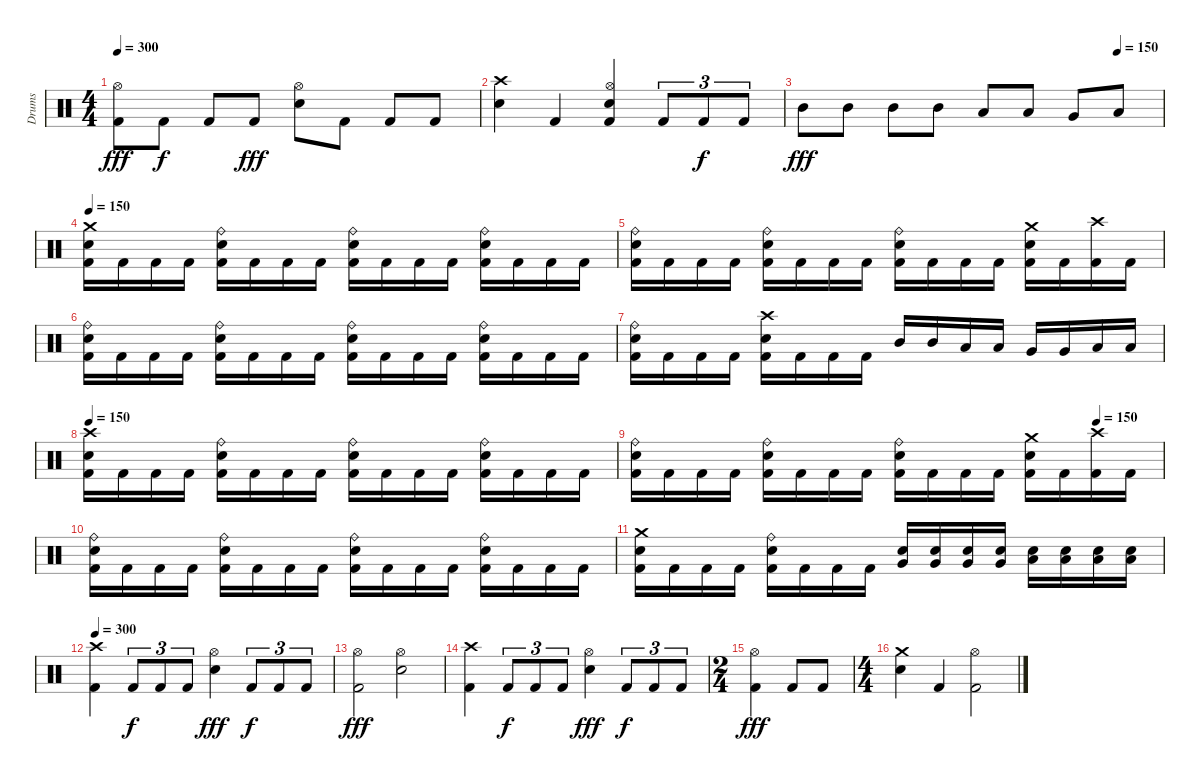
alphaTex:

\track ("Drums" "Drums") {instrument percussion}
\staff {score}
\articulation defaults
\ts (4 4)
\tempo 300
\clef neutral
\ks c
("Kick (hit) 2" "Hi-Hat (open)").8{dy fff} "Kick (hit) 2".8{dy f} "Kick (hit) 2".8 "Kick (hit) 2".8{dy fff} ("Snare (hit) 2" "Hi-Hat (open)").8 "Kick (hit) 2".8 "Kick (hit) 2".8 "Kick (hit) 2".8 |
("Snare (hit) 2" "Crash high (hit)").4 "Kick (hit) 2".4 ("Snare (hit) 2" "Hi-Hat (open)" "Kick (hit) 2").4 "Kick (hit) 2".8{tu (3 2)} "Kick (hit) 2".8{tu (3 2) dy f} "Kick (hit) 2".8{tu (3 2)} |
\tempo (150 0.875)
"Mid Tom (hit)".8{dy fff} "Mid Tom (hit)".8 "Mid Tom (hit)".8 "Mid Tom (hit)".8 "Low Tom (hit)".8 "Low Tom (hit)".8 "Very Low Tom (hit)".8 "Low Floor Tom (hit)".8 |
\tempo 150
("Kick (hit) 2" "Snare (hit) 2" "Crash medium (hit)").16 "Kick (hit) 2".16 "Kick (hit) 2".16 "Kick (hit) 2".16 ("Kick (hit) 2" "Snare (hit) 2" "Ride (bell)").16 "Kick (hit) 2".16 "Kick (hit) 2".16 "Kick (hit) 2".16 ("Kick (hit) 2" "Snare (hit) 2" "Ride (bell)").16 "Kick (hit) 2".16 "Kick (hit) 2".16 "Kick (hit) 2".16 ("Kick (hit) 2" "Snare (hit) 2" "Ride (bell)").16 "Kick (hit) 2".16 "Kick (hit) 2".16 "Kick (hit) 2".16 |
("Kick (hit) 2" "Snare (hit) 2" "Ride (bell)").16 "Kick (hit) 2".16 "Kick (hit) 2".16 "Kick (hit) 2".16 ("Kick (hit) 2" "Snare (hit) 2" "Ride (bell)").16 "Kick (hit) 2".16 "Kick (hit) 2".16 "Kick (hit) 2".16 ("Kick (hit) 2" "Snare (hit) 2" "Ride (bell)").16 "Kick (hit) 2".16 "Kick (hit) 2".16 "Kick (hit) 2".16 ("Kick (hit) 2" "Snare (hit) 2" "Crash medium (hit)").16 "Kick (hit) 2".16 ("Kick (hit) 2" "Crash high (hit)").16 "Kick (hit) 2".16 |
("Kick (hit) 2" "Snare (hit) 2" "Ride (bell)").16 "Kick (hit) 2".16 "Kick (hit) 2".16 "Kick (hit) 2".16 ("Kick (hit) 2" "Snare (hit) 2" "Ride (bell)").16 "Kick (hit) 2".16 "Kick (hit) 2".16 "Kick (hit) 2".16 ("Kick (hit) 2" "Snare (hit) 2" "Ride (bell)").16 "Kick (hit) 2".16 "Kick (hit) 2".16 "Kick (hit) 2".16 ("Kick (hit) 2" "Snare (hit) 2" "Ride (bell)").16 "Kick (hit) 2".16 "Kick (hit) 2".16 "Kick (hit) 2".16 |
("Kick (hit) 2" "Snare (hit) 2" "Ride (bell)").16 "Kick (hit) 2".16 "Kick (hit) 2".16 "Kick (hit) 2".16 ("Kick (hit) 2" "Snare (hit) 2" "Crash high (hit)").16 "Kick (hit) 2".16 "Kick (hit) 2".16 "Kick (hit) 2".16 "Mid Tom (hit)".16 "Mid Tom (hit)".16 "Low Tom (hit)".16 "Low Tom (hit)".16 "Very Low Tom (hit)".16 "Very Low Tom (hit)".16 "Low Floor Tom (hit)".16 "Low Floor Tom (hit)".16 |
\tempo 150
("Kick (hit) 2" "Snare (hit) 2" "Crash high (hit)").16 "Kick (hit) 2".16 "Kick (hit) 2".16 "Kick (hit) 2".16 ("Kick (hit) 2" "Snare (hit) 2" "Ride (bell)").16 "Kick (hit) 2".16 "Kick (hit) 2".16 "Kick (hit) 2".16 ("Kick (hit) 2" "Snare (hit) 2" "Ride (bell)").16 "Kick (hit) 2".16 "Kick (hit) 2".16 "Kick (hit) 2".16 ("Kick (hit) 2" "Snare (hit) 2" "Ride (bell)").16 "Kick (hit) 2".16 "Kick (hit) 2".16 "Kick (hit) 2".16 |
\tempo (150 0.875)
("Kick (hit) 2" "Snare (hit) 2" "Ride (bell)").16 "Kick (hit) 2".16 "Kick (hit) 2".16 "Kick (hit) 2".16 ("Kick (hit) 2" "Snare (hit) 2" "Ride (bell)").16 "Kick (hit) 2".16 "Kick (hit) 2".16 "Kick (hit) 2".16 ("Kick (hit) 2" "Snare (hit) 2" "Ride (bell)").16 "Kick (hit) 2".16 "Kick (hit) 2".16 "Kick (hit) 2".16 ("Kick (hit) 2" "Snare (hit) 2" "Crash medium (hit)").16 "Kick (hit) 2".16 ("Kick (hit) 2" "Crash high (hit)").16 "Kick (hit) 2".16 |
("Kick (hit) 2" "Snare (hit) 2" "Ride (bell)").16 "Kick (hit) 2".16 "Kick (hit) 2".16 "Kick (hit) 2".16 ("Kick (hit) 2" "Snare (hit) 2" "Ride (bell)").16 "Kick (hit) 2".16 "Kick (hit) 2".16 "Kick (hit) 2".16 ("Kick (hit) 2" "Snare (hit) 2" "Ride (bell)").16 "Kick (hit) 2".16 "Kick (hit) 2".16 "Kick (hit) 2".16 ("Kick (hit) 2" "Snare (hit) 2" "Ride (bell)").16 "Kick (hit) 2".16 "Kick (hit) 2".16 "Kick (hit) 2".16 |
("Kick (hit) 2" "Snare (hit) 2" "Crash medium (hit)").16 "Kick (hit) 2".16 "Kick (hit) 2".16 "Kick (hit) 2".16 ("Kick (hit) 2" "Snare (hit) 2" "Ride (bell)").16 "Kick (hit) 2".16 "Kick (hit) 2".16 "Kick (hit) 2".16 ("Snare (hit) 2" "Very Low Tom (hit)").16 ("Snare (hit) 2" "Very Low Tom (hit)").16 ("Snare (hit) 2" "Very Low Tom (hit)").16 ("Snare (hit) 2" "Very Low Tom (hit)").16 ("Snare (hit) 2" "Low Floor Tom (hit)").16 ("Snare (hit) 2" "Low Floor Tom (hit)").16 ("Snare (hit) 2" "Low Floor Tom (hit)").16 ("Snare (hit) 2" "Low Floor Tom (hit)").16 |
\tempo 300
("Kick (hit) 2" "Crash high (hit)").4 "Kick (hit) 2".8{tu (3 2) dy f} "Kick (hit) 2".8{tu (3 2)} "Kick (hit) 2".8{tu (3 2)} ("Snare (hit) 2" "Hi-Hat (open)").4{dy fff} "Kick (hit) 2".8{tu (3 2) dy f} "Kick (hit) 2".8{tu (3 2)} "Kick (hit) 2".8{tu (3 2)} |
("Kick (hit) 2" "Hi-Hat (open)").2{dy fff} ("Snare (hit) 2" "Hi-Hat (open)").2 |
("Kick (hit) 2" "Crash high (hit)").4 "Kick (hit) 2".8{tu (3 2) dy f} "Kick (hit) 2".8{tu (3 2)} "Kick (hit) 2".8{tu (3 2)} ("Snare (hit) 2" "Hi-Hat (open)").4{dy fff} "Kick (hit) 2".8{tu (3 2) dy f} "Kick (hit) 2".8{tu (3 2)} "Kick (hit) 2".8{tu (3 2)} |
\ts (2 4)
("Kick (hit) 2" "Hi-Hat (open)").4{dy fff} "Kick (hit) 2".8 "Kick (hit) 2".8 |
\ts (4 4)
("Snare (hit) 2" "Crash medium (hit)").4 "Kick (hit) 2".4 ("Kick (hit) 2" "Hi-Hat (open)").2
